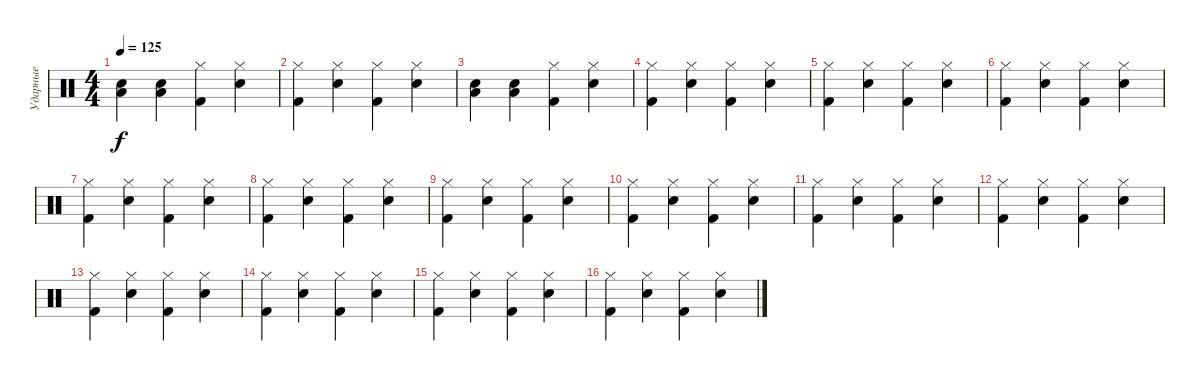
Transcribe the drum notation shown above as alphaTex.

\track ("Ударные" "Ударные") {instrument percussion}
\staff {score}
\articulation defaults
\ts (4 4)
\tempo 125
\clef neutral
\ks c
("Snare (hit) 2" "Low Tom (hit)").4{dy f} ("Snare (hit) 2" "Low Tom (hit)").4 ("Hi-Hat (closed)" "Kick (hit) 2").4 ("Hi-Hat (closed)" "Snare (hit) 2").4 |
("Hi-Hat (closed)" "Kick (hit) 2").4 ("Hi-Hat (closed)" "Snare (hit) 2").4 ("Hi-Hat (closed)" "Kick (hit) 2").4 ("Hi-Hat (closed)" "Snare (hit) 2").4 |
("Snare (hit) 2" "Low Tom (hit)").4 ("Snare (hit) 2" "Low Tom (hit)").4 ("Hi-Hat (closed)" "Kick (hit) 2").4 ("Hi-Hat (closed)" "Snare (hit) 2").4 |
("Hi-Hat (closed)" "Kick (hit) 2").4 ("Hi-Hat (closed)" "Snare (hit) 2").4 ("Hi-Hat (closed)" "Kick (hit) 2").4 ("Hi-Hat (closed)" "Snare (hit) 2").4 |
("Hi-Hat (closed)" "Kick (hit) 2").4 ("Hi-Hat (closed)" "Snare (hit) 2").4 ("Hi-Hat (closed)" "Kick (hit) 2").4 ("Hi-Hat (closed)" "Snare (hit) 2").4 |
("Hi-Hat (closed)" "Kick (hit) 2").4 ("Hi-Hat (closed)" "Snare (hit) 2").4 ("Hi-Hat (closed)" "Kick (hit) 2").4 ("Hi-Hat (closed)" "Snare (hit) 2").4 |
("Hi-Hat (closed)" "Kick (hit) 2").4 ("Hi-Hat (closed)" "Snare (hit) 2").4 ("Hi-Hat (closed)" "Kick (hit) 2").4 ("Hi-Hat (closed)" "Snare (hit) 2").4 |
("Hi-Hat (closed)" "Kick (hit) 2").4 ("Hi-Hat (closed)" "Snare (hit) 2").4 ("Hi-Hat (closed)" "Kick (hit) 2").4 ("Hi-Hat (closed)" "Snare (hit) 2").4 |
("Hi-Hat (closed)" "Kick (hit) 2").4 ("Hi-Hat (closed)" "Snare (hit) 2").4 ("Hi-Hat (closed)" "Kick (hit) 2").4 ("Hi-Hat (closed)" "Snare (hit) 2").4 |
("Hi-Hat (closed)" "Kick (hit) 2").4 ("Hi-Hat (closed)" "Snare (hit) 2").4 ("Hi-Hat (closed)" "Kick (hit) 2").4 ("Hi-Hat (closed)" "Snare (hit) 2").4 |
("Hi-Hat (closed)" "Kick (hit) 2").4 ("Hi-Hat (closed)" "Snare (hit) 2").4 ("Hi-Hat (closed)" "Kick (hit) 2").4 ("Hi-Hat (closed)" "Snare (hit) 2").4 |
("Hi-Hat (closed)" "Kick (hit) 2").4 ("Hi-Hat (closed)" "Snare (hit) 2").4 ("Hi-Hat (closed)" "Kick (hit) 2").4 ("Hi-Hat (closed)" "Snare (hit) 2").4 |
("Hi-Hat (closed)" "Kick (hit) 2").4 ("Hi-Hat (closed)" "Snare (hit) 2").4 ("Hi-Hat (closed)" "Kick (hit) 2").4 ("Hi-Hat (closed)" "Snare (hit) 2").4 |
("Hi-Hat (closed)" "Kick (hit) 2").4 ("Hi-Hat (closed)" "Snare (hit) 2").4 ("Hi-Hat (closed)" "Kick (hit) 2").4 ("Hi-Hat (closed)" "Snare (hit) 2").4 |
("Hi-Hat (closed)" "Kick (hit) 2").4 ("Hi-Hat (closed)" "Snare (hit) 2").4 ("Hi-Hat (closed)" "Kick (hit) 2").4 ("Hi-Hat (closed)" "Snare (hit) 2").4 |
("Hi-Hat (closed)" "Kick (hit) 2").4 ("Hi-Hat (closed)" "Snare (hit) 2").4 ("Hi-Hat (closed)" "Kick (hit) 2").4 ("Hi-Hat (closed)" "Snare (hit) 2").4
